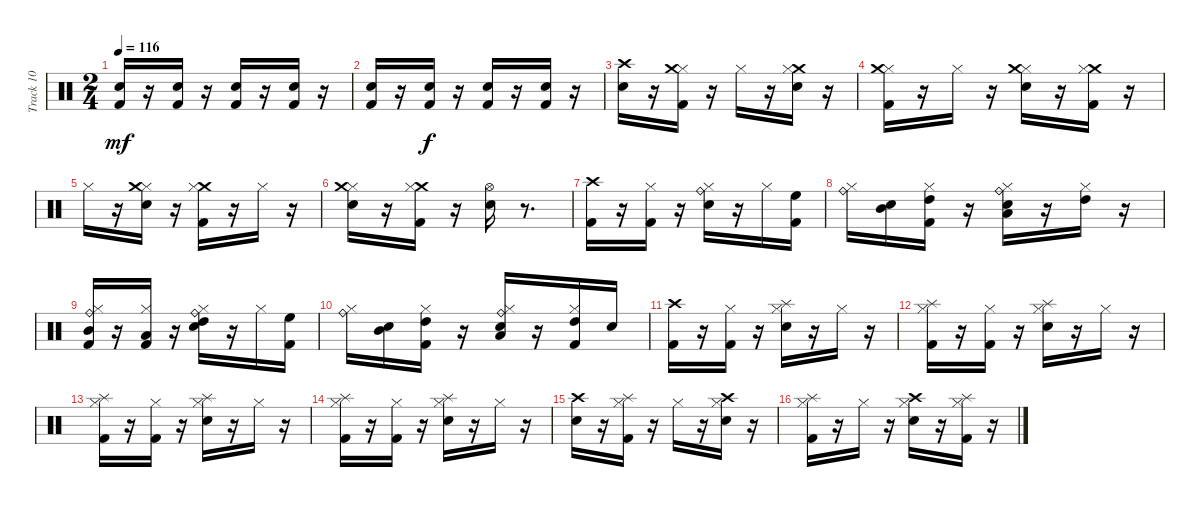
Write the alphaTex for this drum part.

\track ("Track 10" "Track 10") {instrument percussion}
\staff {score}
\articulation defaults
\ts (2 4)
\tempo 116
\clef neutral
\ks c
("Kick (hit) 2" "Electric Snare (hit)").16{dy mf} r.16 ("Kick (hit) 2" "Electric Snare (hit)").16 r.16 ("Electric Snare (hit)" "Kick (hit) 2").16 r.16 ("Electric Snare (hit)" "Kick (hit) 2").16 r.16 |
("Kick (hit) 2" "Electric Snare (hit)").16 r.16 ("Electric Snare (hit)" "Kick (hit) 2").16{dy f} r.16 ("Kick (hit) 2" "Electric Snare (hit)").16 r.16 ("Electric Snare (hit)" "Kick (hit) 2").16 r.16 |
("Crash high (hit)" "Electric Snare (hit)").16 r.16 ("Hi-Hat (closed)" "Crash medium (hit)" "Kick (hit) 2").16 r.16 "Hi-Hat (closed)".16 r.16 ("Crash medium (hit)" "Electric Snare (hit)" "Hi-Hat (closed)").16 r.16 |
("Hi-Hat (closed)" "Crash medium (hit)" "Kick (hit) 2").16 r.16 "Hi-Hat (closed)".16 r.16 ("Hi-Hat (closed)" "Crash medium (hit)" "Electric Snare (hit)").16 r.16 ("Crash medium (hit)" "Kick (hit) 2" "Hi-Hat (closed)").16 r.16 |
"Hi-Hat (closed)".16 r.16 ("Hi-Hat (closed)" "Electric Snare (hit)" "Crash medium (hit)").16 r.16 ("Crash medium (hit)" "Kick (hit) 2" "Hi-Hat (closed)").16 r.16 "Hi-Hat (closed)".16 r.16 |
("Hi-Hat (closed)" "Crash medium (hit)" "Electric Snare (hit)").16 r.16 ("Crash medium (hit)" "Kick (hit) 2" "Hi-Hat (closed)").16 r.16 ("Hi-Hat (open)" "Electric Snare (hit)").16 r.8{d} |
("Crash high (hit)" "Kick (hit) 2").16 r.16 ("Hi-Hat (closed)" "Kick (hit) 2").16 r.16 ("Ride (bell)" "Electric Snare (hit)" "Hi-Hat (closed)").16 r.16 "Hi-Hat (closed)".16 ("High Floor Tom (hit)" "Kick (hit) 2").16 |
("Ride (bell)" "Hi-Hat (closed)").16 ("Mid Tom (hit)" "Electric Snare (hit)").16 ("High Tom (hit)" "Kick (hit) 2" "Hi-Hat (closed)").16 r.16 ("Hi-Hat (closed)" "Low Tom (hit)" "Electric Snare (hit)" "Ride (bell)").16 r.16 ("Hi-Hat (closed)" "High Tom (hit)").16 r.16 |
("Mid Tom (hit)" "Kick (hit) 2" "Hi-Hat (closed)" "Ride (bell)").16 r.16 ("Low Tom (hit)" "Kick (hit) 2" "Hi-Hat (closed)").16 r.16 ("High Tom (hit)" "Electric Snare (hit)" "Hi-Hat (closed)" "Ride (bell)").16 r.16 "Hi-Hat (closed)".16 ("Kick (hit) 2" "High Floor Tom (hit)").16 |
("Ride (bell)" "Hi-Hat (closed)").16 ("Electric Snare (hit)" "Mid Tom (hit)").16 ("High Tom (hit)" "Hi-Hat (closed)" "Kick (hit) 2").16 r.16 ("Low Tom (hit)" "Electric Snare (hit)" "Hi-Hat (closed)" "Ride (bell)").16 r.16 ("High Tom (hit)" "Kick (hit) 2" "Hi-Hat (closed)").16 "Electric Snare (hit)".16 |
("Crash high (hit)" "Kick (hit) 2").16 r.16 ("Kick (hit) 2" "Hi-Hat (closed)").16 r.16 ("Hi-Hat (closed)" "Splash (hit)" "Electric Snare (hit)").16 r.16 "Hi-Hat (closed)".16 r.16 |
("Hi-Hat (closed)" "Splash (hit)" "Kick (hit) 2").16 r.16 ("Hi-Hat (closed)" "Kick (hit) 2").16 r.16 ("Hi-Hat (closed)" "Electric Snare (hit)" "Splash (hit)").16 r.16 "Hi-Hat (closed)".16 r.16 |
("Splash (hit)" "Kick (hit) 2" "Hi-Hat (closed)").16 r.16 ("Kick (hit) 2" "Hi-Hat (closed)").16 r.16 ("Splash (hit)" "Electric Snare (hit)" "Hi-Hat (closed)").16 r.16 "Hi-Hat (closed)".16 r.16 |
("Kick (hit) 2" "Splash (hit)" "Hi-Hat (closed)").16 r.16 ("Kick (hit) 2" "Hi-Hat (closed)").16 r.16 ("Hi-Hat (closed)" "Splash (hit)" "Electric Snare (hit)").16 r.16 "Hi-Hat (closed)".16 r.16 |
("Crash high (hit)" "Electric Snare (hit)").16 r.16 ("Hi-Hat (closed)" "Kick (hit) 2" "Splash (hit)").16 r.16 "Hi-Hat (closed)".16 r.16 ("Crash high (hit)" "Electric Snare (hit)" "Hi-Hat (closed)").16 r.16 |
("Hi-Hat (closed)" "Splash (hit)" "Kick (hit) 2").16 r.16 "Hi-Hat (closed)".16 r.16 ("Hi-Hat (closed)" "Crash high (hit)" "Electric Snare (hit)").16 r.16 ("Hi-Hat (closed)" "Splash (hit)" "Kick (hit) 2").16 r.16
